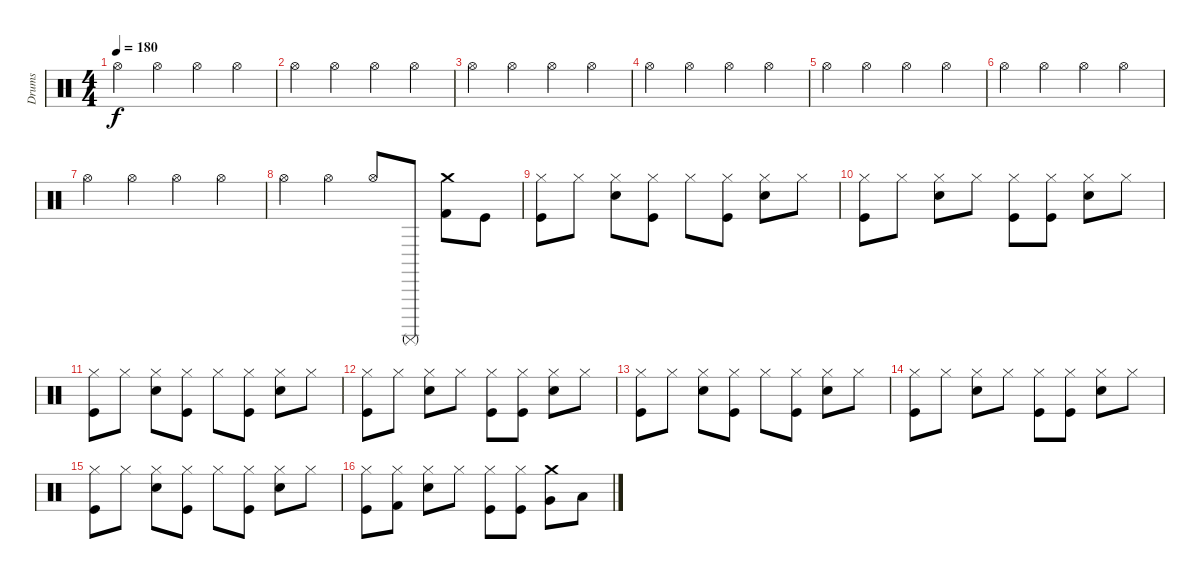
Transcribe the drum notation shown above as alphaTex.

\track ("Drums" "Drums") {instrument percussion}
\staff {score}
\articulation defaults
\ts (4 4)
\tempo 180
\clef neutral
\ks c "Hi-Hat (open)".4{dy f} "Hi-Hat (open)".4 "Hi-Hat (open)".4 "Hi-Hat (open)".4
|
"Hi-Hat (open)".4 "Hi-Hat (open)".4 "Hi-Hat (open)".4 "Hi-Hat (open)".4 |
"Hi-Hat (open)".4 "Hi-Hat (open)".4 "Hi-Hat (open)".4 "Hi-Hat (open)".4 |
"Hi-Hat (open)".4 "Hi-Hat (open)".4 "Hi-Hat (open)".4 "Hi-Hat (open)".4 |
"Hi-Hat (open)".4 "Hi-Hat (open)".4 "Hi-Hat (open)".4 "Hi-Hat (open)".4 |
"Hi-Hat (open)".4 "Hi-Hat (open)".4 "Hi-Hat (open)".4 "Hi-Hat (open)".4 |
"Hi-Hat (open)".4 "Hi-Hat (open)".4 "Hi-Hat (open)".4 "Hi-Hat (open)".4 |
"Hi-Hat (open)".4 "Hi-Hat (open)".4 "Hi-Hat (open)".8 "Surdo (mute)".8 ("Crash medium (hit)" "Kick (hit) 2").8 "Kick (hit)".8 |
("Hi-Hat (closed)" "Kick (hit)").8 "Hi-Hat (closed)".8 ("Hi-Hat (closed)" "Snare (hit) 2").8 ("Hi-Hat (closed)" "Kick (hit)").8 "Hi-Hat (closed)".8 ("Hi-Hat (closed)" "Kick (hit)").8 ("Hi-Hat (closed)" "Snare (hit) 2").8 "Hi-Hat (closed)".8 |
("Hi-Hat (closed)" "Kick (hit)").8 "Hi-Hat (closed)".8 ("Hi-Hat (closed)" "Snare (hit) 2").8 "Hi-Hat (closed)".8 ("Hi-Hat (closed)" "Kick (hit)").8 ("Hi-Hat (closed)" "Kick (hit)").8 ("Hi-Hat (closed)" "Snare (hit) 2").8 "Hi-Hat (closed)".8 |
("Hi-Hat (closed)" "Kick (hit)").8 "Hi-Hat (closed)".8 ("Hi-Hat (closed)" "Snare (hit) 2").8 ("Hi-Hat (closed)" "Kick (hit)").8 "Hi-Hat (closed)".8 ("Hi-Hat (closed)" "Kick (hit)").8 ("Hi-Hat (closed)" "Snare (hit) 2").8 "Hi-Hat (closed)".8 |
("Hi-Hat (closed)" "Kick (hit)").8 "Hi-Hat (closed)".8 ("Hi-Hat (closed)" "Snare (hit) 2").8 "Hi-Hat (closed)".8 ("Hi-Hat (closed)" "Kick (hit)").8 ("Hi-Hat (closed)" "Kick (hit)").8 ("Hi-Hat (closed)" "Snare (hit) 2").8 "Hi-Hat (closed)".8 |
("Hi-Hat (closed)" "Kick (hit)").8 "Hi-Hat (closed)".8 ("Hi-Hat (closed)" "Snare (hit) 2").8 ("Hi-Hat (closed)" "Kick (hit)").8 "Hi-Hat (closed)".8 ("Hi-Hat (closed)" "Kick (hit)").8 ("Hi-Hat (closed)" "Snare (hit) 2").8 "Hi-Hat (closed)".8 |
("Hi-Hat (closed)" "Kick (hit)").8 "Hi-Hat (closed)".8 ("Hi-Hat (closed)" "Snare (hit) 2").8 "Hi-Hat (closed)".8 ("Hi-Hat (closed)" "Kick (hit)").8 ("Hi-Hat (closed)" "Kick (hit)").8 ("Hi-Hat (closed)" "Snare (hit) 2").8 "Hi-Hat (closed)".8 |
("Hi-Hat (closed)" "Kick (hit)").8 "Hi-Hat (closed)".8 ("Hi-Hat (closed)" "Snare (hit) 2").8 ("Hi-Hat (closed)" "Kick (hit)").8 "Hi-Hat (closed)".8 ("Hi-Hat (closed)" "Kick (hit)").8 ("Hi-Hat (closed)" "Snare (hit) 2").8 "Hi-Hat (closed)".8 |
("Hi-Hat (closed)" "Kick (hit)").8 ("Hi-Hat (closed)" "Kick (hit) 2").8 ("Hi-Hat (closed)" "Snare (hit) 2").8 "Hi-Hat (closed)".8 ("Hi-Hat (closed)" "Kick (hit)").8 ("Hi-Hat (closed)" "Kick (hit)").8 ("Crash medium (hit)" "Very Low Tom (hit)").8 "Low Tom (hit)".8
